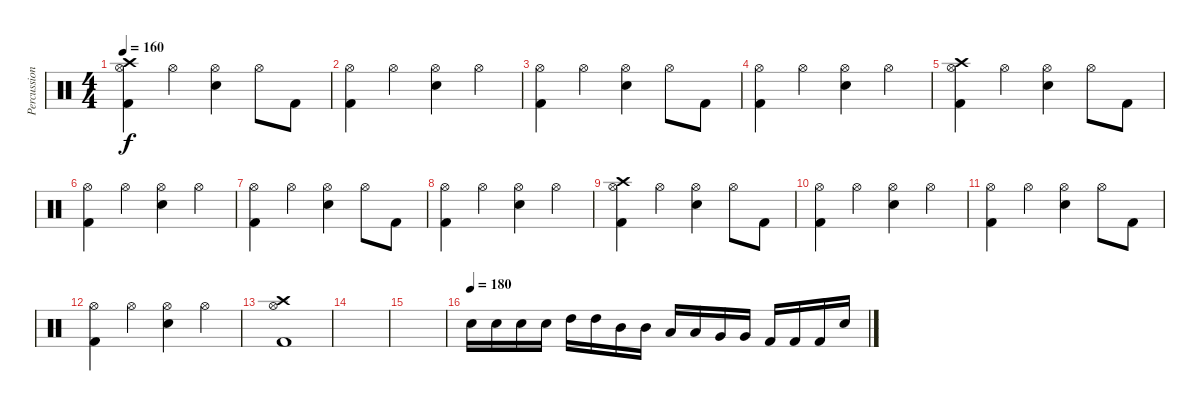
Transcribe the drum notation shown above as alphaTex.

\track ("Percussions" "Percussion") {instrument percussion}
\staff {score}
\articulation defaults
\ts (4 4)
\tempo 160
\clef neutral
\ks c
("Crash high (hit)" "Hi-Hat (open)" "Kick (hit) 2").4{dy f} "Hi-Hat (open)".4 ("Hi-Hat (open)" "Electric Snare (hit)").4 "Hi-Hat (open)".8 "Kick (hit) 2".8 |
("Hi-Hat (open)" "Kick (hit) 2").4 "Hi-Hat (open)".4 ("Hi-Hat (open)" "Electric Snare (hit)").4 "Hi-Hat (open)".4 |
("Hi-Hat (open)" "Kick (hit) 2").4 "Hi-Hat (open)".4 ("Hi-Hat (open)" "Electric Snare (hit)").4 "Hi-Hat (open)".8 "Kick (hit) 2".8 |
("Hi-Hat (open)" "Kick (hit) 2").4 "Hi-Hat (open)".4 ("Hi-Hat (open)" "Electric Snare (hit)").4 "Hi-Hat (open)".4 |
("Crash high (hit)" "Hi-Hat (open)" "Kick (hit) 2").4 "Hi-Hat (open)".4 ("Hi-Hat (open)" "Electric Snare (hit)").4 "Hi-Hat (open)".8 "Kick (hit) 2".8 |
("Hi-Hat (open)" "Kick (hit) 2").4 "Hi-Hat (open)".4 ("Hi-Hat (open)" "Electric Snare (hit)").4 "Hi-Hat (open)".4 |
("Hi-Hat (open)" "Kick (hit) 2").4 "Hi-Hat (open)".4 ("Hi-Hat (open)" "Electric Snare (hit)").4 "Hi-Hat (open)".8 "Kick (hit) 2".8 |
("Hi-Hat (open)" "Kick (hit) 2").4 "Hi-Hat (open)".4 ("Hi-Hat (open)" "Electric Snare (hit)").4 "Hi-Hat (open)".4 |
("Crash high (hit)" "Hi-Hat (open)" "Kick (hit) 2").4 "Hi-Hat (open)".4 ("Hi-Hat (open)" "Electric Snare (hit)").4 "Hi-Hat (open)".8 "Kick (hit) 2".8 |
("Hi-Hat (open)" "Kick (hit) 2").4 "Hi-Hat (open)".4 ("Hi-Hat (open)" "Electric Snare (hit)").4 "Hi-Hat (open)".4 |
("Hi-Hat (open)" "Kick (hit) 2").4 "Hi-Hat (open)".4 ("Hi-Hat (open)" "Electric Snare (hit)").4 "Hi-Hat (open)".8 "Kick (hit) 2".8 |
("Hi-Hat (open)" "Kick (hit) 2").4 "Hi-Hat (open)".4 ("Hi-Hat (open)" "Electric Snare (hit)").4 "Hi-Hat (open)".4 |
("Crash high (hit)" "Hi-Hat (open)" "Kick (hit) 2").1 |
|
|
\tempo (180)
"Electric Snare (hit)".16 "Electric Snare (hit)".16 "Electric Snare (hit)".16 "Electric Snare (hit)".16 "High Tom (hit)".16 "High Tom (hit)".16 "Mid Tom (hit)".16 "Mid Tom (hit)".16 "Low Tom (hit)".16 "Low Tom (hit)".16 "Very Low Tom (hit)".16 "Very Low Tom (hit)".16 "Kick (hit) 2".16 "Kick (hit) 2".16 "Kick (hit) 2".16 "Electric Snare (hit)".16
